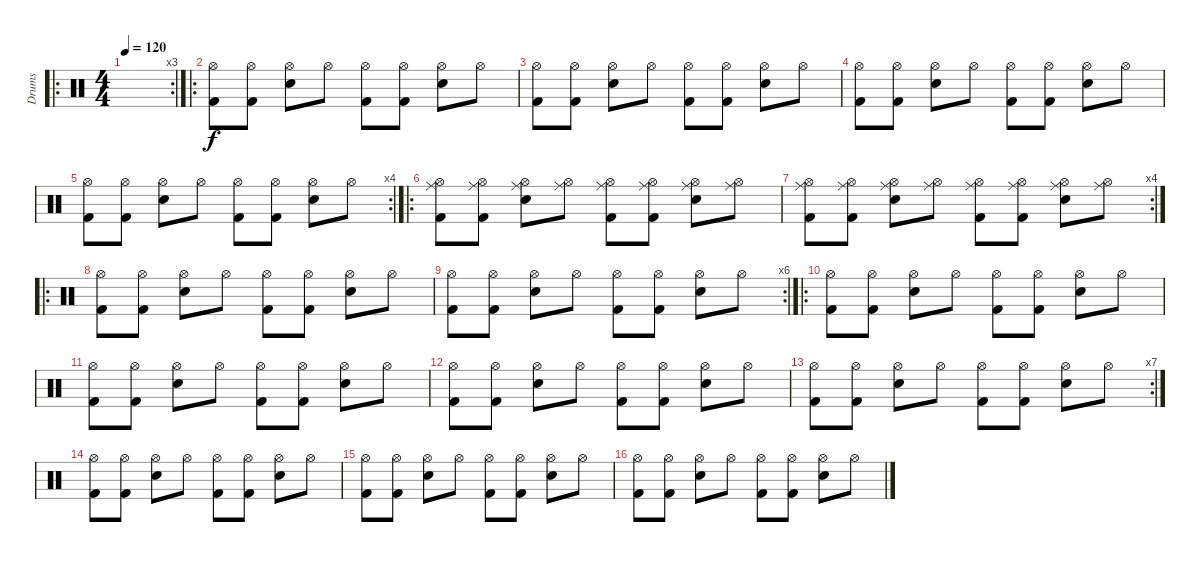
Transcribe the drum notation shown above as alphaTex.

\track ("Drums" "Drums") {instrument percussion}
\staff {score}
\articulation defaults
\ro
\rc 3
\ts (4 4)
\tempo 120
\tempo 130
\tempo 120
\clef neutral
\ks c
|
\ro
("Hi-Hat (open)" "Kick (hit) 2").8 ("Hi-Hat (open)" "Kick (hit) 2").8 ("Hi-Hat (open)" "Snare (hit) 2").8 "Hi-Hat (open)".8 ("Hi-Hat (open)" "Kick (hit) 2").8 ("Hi-Hat (open)" "Kick (hit) 2").8 ("Hi-Hat (open)" "Snare (hit) 2").8 "Hi-Hat (open)".8 |
("Hi-Hat (open)" "Kick (hit) 2").8 ("Hi-Hat (open)" "Kick (hit) 2").8 ("Hi-Hat (open)" "Snare (hit) 2").8 "Hi-Hat (open)".8 ("Hi-Hat (open)" "Kick (hit) 2").8 ("Hi-Hat (open)" "Kick (hit) 2").8 ("Hi-Hat (open)" "Snare (hit) 2").8 "Hi-Hat (open)".8 |
("Hi-Hat (open)" "Kick (hit) 2").8 ("Hi-Hat (open)" "Kick (hit) 2").8 ("Hi-Hat (open)" "Snare (hit) 2").8 "Hi-Hat (open)".8 ("Hi-Hat (open)" "Kick (hit) 2").8 ("Hi-Hat (open)" "Kick (hit) 2").8 ("Hi-Hat (open)" "Snare (hit) 2").8 "Hi-Hat (open)".8 |
\rc 4
("Hi-Hat (open)" "Kick (hit) 2").8 ("Hi-Hat (open)" "Kick (hit) 2").8 ("Hi-Hat (open)" "Snare (hit) 2").8 "Hi-Hat (open)".8 ("Hi-Hat (open)" "Kick (hit) 2").8 ("Hi-Hat (open)" "Kick (hit) 2").8 ("Hi-Hat (open)" "Snare (hit) 2").8 "Hi-Hat (open)".8 |
\ro
("Ride (middle)" "Hi-Hat (open)" "Kick (hit) 2").8 ("Ride (middle)" "Hi-Hat (open)" "Kick (hit) 2").8 ("Ride (middle)" "Hi-Hat (open)" "Snare (hit) 2").8 ("Ride (middle)" "Hi-Hat (open)").8 ("Ride (middle)" "Hi-Hat (open)" "Kick (hit) 2").8 ("Ride (middle)" "Hi-Hat (open)" "Kick (hit) 2").8 ("Ride (middle)" "Hi-Hat (open)" "Snare (hit) 2").8 ("Ride (middle)" "Hi-Hat (open)").8 |
\rc 4
("Ride (middle)" "Hi-Hat (open)" "Kick (hit) 2").8 ("Ride (middle)" "Hi-Hat (open)" "Kick (hit) 2").8 ("Ride (middle)" "Hi-Hat (open)" "Snare (hit) 2").8 ("Ride (middle)" "Hi-Hat (open)").8 ("Ride (middle)" "Hi-Hat (open)" "Kick (hit) 2").8 ("Ride (middle)" "Hi-Hat (open)" "Kick (hit) 2").8 ("Ride (middle)" "Hi-Hat (open)" "Snare (hit) 2").8 ("Ride (middle)" "Hi-Hat (open)").8 |
\ro
("Hi-Hat (open)" "Kick (hit) 2").8 ("Hi-Hat (open)" "Kick (hit) 2").8 ("Hi-Hat (open)" "Snare (hit) 2").8 "Hi-Hat (open)".8 ("Hi-Hat (open)" "Kick (hit) 2").8 ("Hi-Hat (open)" "Kick (hit) 2").8 ("Hi-Hat (open)" "Snare (hit) 2").8 "Hi-Hat (open)".8 |
\rc 6
("Hi-Hat (open)" "Kick (hit) 2").8 ("Hi-Hat (open)" "Kick (hit) 2").8 ("Hi-Hat (open)" "Snare (hit) 2").8 "Hi-Hat (open)".8 ("Hi-Hat (open)" "Kick (hit) 2").8 ("Hi-Hat (open)" "Kick (hit) 2").8 ("Hi-Hat (open)" "Snare (hit) 2").8 "Hi-Hat (open)".8 |
\ro
("Hi-Hat (open)" "Kick (hit) 2").8 ("Hi-Hat (open)" "Kick (hit) 2").8 ("Hi-Hat (open)" "Snare (hit) 2").8 "Hi-Hat (open)".8 ("Hi-Hat (open)" "Kick (hit) 2").8 ("Hi-Hat (open)" "Kick (hit) 2").8 ("Hi-Hat (open)" "Snare (hit) 2").8 "Hi-Hat (open)".8 |
("Hi-Hat (open)" "Kick (hit) 2").8 ("Hi-Hat (open)" "Kick (hit) 2").8 ("Hi-Hat (open)" "Snare (hit) 2").8 "Hi-Hat (open)".8 ("Hi-Hat (open)" "Kick (hit) 2").8 ("Hi-Hat (open)" "Kick (hit) 2").8 ("Hi-Hat (open)" "Snare (hit) 2").8 "Hi-Hat (open)".8 |
("Hi-Hat (open)" "Kick (hit) 2").8 ("Hi-Hat (open)" "Kick (hit) 2").8 ("Hi-Hat (open)" "Snare (hit) 2").8 "Hi-Hat (open)".8 ("Hi-Hat (open)" "Kick (hit) 2").8 ("Hi-Hat (open)" "Kick (hit) 2").8 ("Hi-Hat (open)" "Snare (hit) 2").8 "Hi-Hat (open)".8 |
\rc 7
("Hi-Hat (open)" "Kick (hit) 2").8 ("Hi-Hat (open)" "Kick (hit) 2").8 ("Hi-Hat (open)" "Snare (hit) 2").8 "Hi-Hat (open)".8 ("Hi-Hat (open)" "Kick (hit) 2").8 ("Hi-Hat (open)" "Kick (hit) 2").8 ("Hi-Hat (open)" "Snare (hit) 2").8 "Hi-Hat (open)".8 |
("Hi-Hat (open)" "Kick (hit) 2").8 ("Hi-Hat (open)" "Kick (hit) 2").8 ("Hi-Hat (open)" "Snare (hit) 2").8 "Hi-Hat (open)".8 ("Hi-Hat (open)" "Kick (hit) 2").8 ("Hi-Hat (open)" "Kick (hit) 2").8 ("Hi-Hat (open)" "Snare (hit) 2").8 "Hi-Hat (open)".8 |
("Hi-Hat (open)" "Kick (hit) 2").8 ("Hi-Hat (open)" "Kick (hit) 2").8 ("Hi-Hat (open)" "Snare (hit) 2").8 "Hi-Hat (open)".8 ("Hi-Hat (open)" "Kick (hit) 2").8 ("Hi-Hat (open)" "Kick (hit) 2").8 ("Hi-Hat (open)" "Snare (hit) 2").8 "Hi-Hat (open)".8 |
("Hi-Hat (open)" "Kick (hit) 2").8 ("Hi-Hat (open)" "Kick (hit) 2").8 ("Hi-Hat (open)" "Snare (hit) 2").8 "Hi-Hat (open)".8 ("Hi-Hat (open)" "Kick (hit) 2").8 ("Hi-Hat (open)" "Kick (hit) 2").8 ("Hi-Hat (open)" "Snare (hit) 2").8 "Hi-Hat (open)".8
